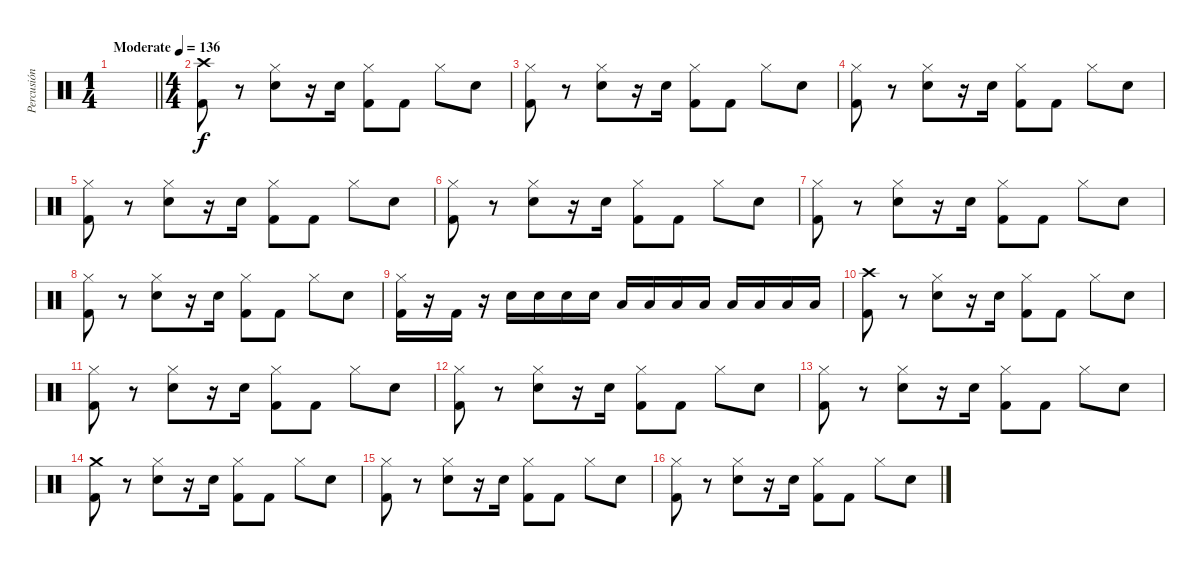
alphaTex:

\track ("Percusión" "Percusión") {instrument percussion}
\staff {score}
\articulation defaults
\ts (1 4)
\tempo (136 "Moderate")
\clef neutral
\barLineRight lightlight
\ks c
|
\ts (4 4)
("Crash high (hit)" "Kick (hit) 2").8 r.8 ("Hi-Hat (closed)" "Electric Snare (hit)").8 r.16 "Electric Snare (hit)".16 ("Hi-Hat (closed)" "Kick (hit) 2").8 "Kick (hit) 2".8 "Hi-Hat (closed)".8 "Electric Snare (hit)".8 |
("Hi-Hat (closed)" "Kick (hit) 2").8 r.8 ("Hi-Hat (closed)" "Electric Snare (hit)").8 r.16 "Electric Snare (hit)".16 ("Hi-Hat (closed)" "Kick (hit) 2").8 "Kick (hit) 2".8 "Hi-Hat (closed)".8 "Electric Snare (hit)".8 |
("Hi-Hat (closed)" "Kick (hit) 2").8 r.8 ("Hi-Hat (closed)" "Electric Snare (hit)").8 r.16 "Electric Snare (hit)".16 ("Hi-Hat (closed)" "Kick (hit) 2").8 "Kick (hit) 2".8 "Hi-Hat (closed)".8 "Electric Snare (hit)".8 |
("Hi-Hat (closed)" "Kick (hit) 2").8 r.8 ("Hi-Hat (closed)" "Electric Snare (hit)").8 r.16 "Electric Snare (hit)".16 ("Hi-Hat (closed)" "Kick (hit) 2").8 "Kick (hit) 2".8 "Hi-Hat (closed)".8 "Electric Snare (hit)".8 |
("Hi-Hat (closed)" "Kick (hit) 2").8 r.8 ("Hi-Hat (closed)" "Electric Snare (hit)").8 r.16 "Electric Snare (hit)".16 ("Hi-Hat (closed)" "Kick (hit) 2").8 "Kick (hit) 2".8 "Hi-Hat (closed)".8 "Electric Snare (hit)".8 |
("Hi-Hat (closed)" "Kick (hit) 2").8 r.8 ("Hi-Hat (closed)" "Electric Snare (hit)").8 r.16 "Electric Snare (hit)".16 ("Hi-Hat (closed)" "Kick (hit) 2").8 "Kick (hit) 2".8 "Hi-Hat (closed)".8 "Electric Snare (hit)".8 |
("Hi-Hat (closed)" "Kick (hit) 2").8 r.8 ("Hi-Hat (closed)" "Electric Snare (hit)").8 r.16 "Electric Snare (hit)".16 ("Hi-Hat (closed)" "Kick (hit) 2").8 "Kick (hit) 2".8 "Hi-Hat (closed)".8 "Electric Snare (hit)".8 |
("Hi-Hat (closed)" "Kick (hit) 2").16 r.16 "Kick (hit) 2".16 r.16 "Electric Snare (hit)".16 "Electric Snare (hit)".16 "Electric Snare (hit)".16 "Electric Snare (hit)".16 "Low Tom (hit)".16 "Low Tom (hit)".16 "Low Tom (hit)".16 "Low Tom (hit)".16 "Low Floor Tom (hit)".16 "Low Floor Tom (hit)".16 "Low Floor Tom (hit)".16 "Low Floor Tom (hit)".16 |
("Crash high (hit)" "Kick (hit) 2").8 r.8 ("Hi-Hat (closed)" "Electric Snare (hit)").8 r.16 "Electric Snare (hit)".16 ("Hi-Hat (closed)" "Kick (hit) 2").8 "Kick (hit) 2".8 "Hi-Hat (closed)".8 "Electric Snare (hit)".8 |
("Hi-Hat (closed)" "Kick (hit) 2").8 r.8 ("Hi-Hat (closed)" "Electric Snare (hit)").8 r.16 "Electric Snare (hit)".16 ("Hi-Hat (closed)" "Kick (hit) 2").8 "Kick (hit) 2".8 "Hi-Hat (closed)".8 "Electric Snare (hit)".8 |
("Hi-Hat (closed)" "Kick (hit) 2").8 r.8 ("Hi-Hat (closed)" "Electric Snare (hit)").8 r.16 "Electric Snare (hit)".16 ("Hi-Hat (closed)" "Kick (hit) 2").8 "Kick (hit) 2".8 "Hi-Hat (closed)".8 "Electric Snare (hit)".8 |
("Hi-Hat (closed)" "Kick (hit) 2").8 r.8 ("Hi-Hat (closed)" "Electric Snare (hit)").8 r.16 "Electric Snare (hit)".16 ("Hi-Hat (closed)" "Kick (hit) 2").8 "Kick (hit) 2".8 "Hi-Hat (closed)".8 "Electric Snare (hit)".8 |
("Crash medium (hit)" "Kick (hit) 2").8 r.8 ("Hi-Hat (closed)" "Electric Snare (hit)").8 r.16 "Electric Snare (hit)".16 ("Hi-Hat (closed)" "Kick (hit) 2").8 "Kick (hit) 2".8 "Hi-Hat (closed)".8 "Electric Snare (hit)".8 |
("Hi-Hat (closed)" "Kick (hit) 2").8 r.8 ("Hi-Hat (closed)" "Electric Snare (hit)").8 r.16 "Electric Snare (hit)".16 ("Hi-Hat (closed)" "Kick (hit) 2").8 "Kick (hit) 2".8 "Hi-Hat (closed)".8 "Electric Snare (hit)".8 |
("Hi-Hat (closed)" "Kick (hit) 2").8 r.8 ("Hi-Hat (closed)" "Electric Snare (hit)").8 r.16 "Electric Snare (hit)".16 ("Hi-Hat (closed)" "Kick (hit) 2").8 "Kick (hit) 2".8 "Hi-Hat (closed)".8 "Electric Snare (hit)".8
